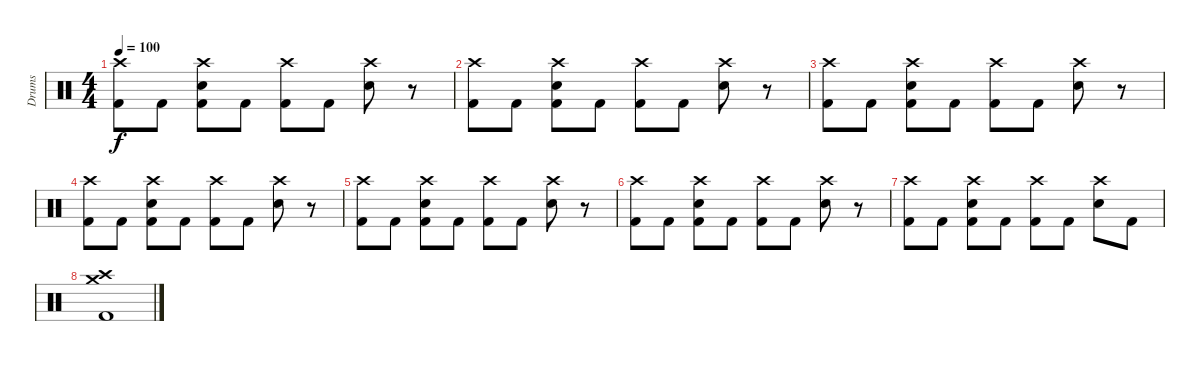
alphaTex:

\track ("Drums" "Drums") {instrument percussion}
\staff {score}
\articulation defaults
\ts (4 4)
\tempo 100
\clef neutral
\ks c
("Crash high (hit)" "Kick (hit) 2").8{dy f} "Kick (hit) 2".8 ("Crash high (hit)" "Electric Snare (hit)" "Kick (hit) 2").8 "Kick (hit) 2".8 ("Crash high (hit)" "Kick (hit) 2").8 "Kick (hit) 2".8 ("Crash high (hit)" "Electric Snare (hit)").8 r.8 |
("Crash high (hit)" "Kick (hit) 2").8 "Kick (hit) 2".8 ("Crash high (hit)" "Electric Snare (hit)" "Kick (hit) 2").8 "Kick (hit) 2".8 ("Crash high (hit)" "Kick (hit) 2").8 "Kick (hit) 2".8 ("Crash high (hit)" "Electric Snare (hit)").8 r.8 |
("Crash high (hit)" "Kick (hit) 2").8 "Kick (hit) 2".8 ("Crash high (hit)" "Electric Snare (hit)" "Kick (hit) 2").8 "Kick (hit) 2".8 ("Crash high (hit)" "Kick (hit) 2").8 "Kick (hit) 2".8 ("Crash high (hit)" "Electric Snare (hit)").8 r.8 |
("Crash high (hit)" "Kick (hit) 2").8 "Kick (hit) 2".8 ("Crash high (hit)" "Electric Snare (hit)" "Kick (hit) 2").8 "Kick (hit) 2".8 ("Crash high (hit)" "Kick (hit) 2").8 "Kick (hit) 2".8 ("Crash high (hit)" "Electric Snare (hit)").8 r.8 |
("Crash high (hit)" "Kick (hit) 2").8 "Kick (hit) 2".8 ("Crash high (hit)" "Electric Snare (hit)" "Kick (hit) 2").8 "Kick (hit) 2".8 ("Crash high (hit)" "Kick (hit) 2").8 "Kick (hit) 2".8 ("Crash high (hit)" "Electric Snare (hit)").8 r.8 |
("Crash high (hit)" "Kick (hit) 2").8 "Kick (hit) 2".8 ("Crash high (hit)" "Electric Snare (hit)" "Kick (hit) 2").8 "Kick (hit) 2".8 ("Crash high (hit)" "Kick (hit) 2").8 "Kick (hit) 2".8 ("Crash high (hit)" "Electric Snare (hit)").8 r.8 |
("Crash high (hit)" "Kick (hit) 2").8 "Kick (hit) 2".8 ("Crash high (hit)" "Electric Snare (hit)" "Kick (hit) 2").8 "Kick (hit) 2".8 ("Crash high (hit)" "Kick (hit) 2").8 "Kick (hit) 2".8 ("Crash high (hit)" "Electric Snare (hit)").8 "Kick (hit) 2".8 |
("Crash high (hit)" "Crash medium (hit)" "Kick (hit) 2").1
